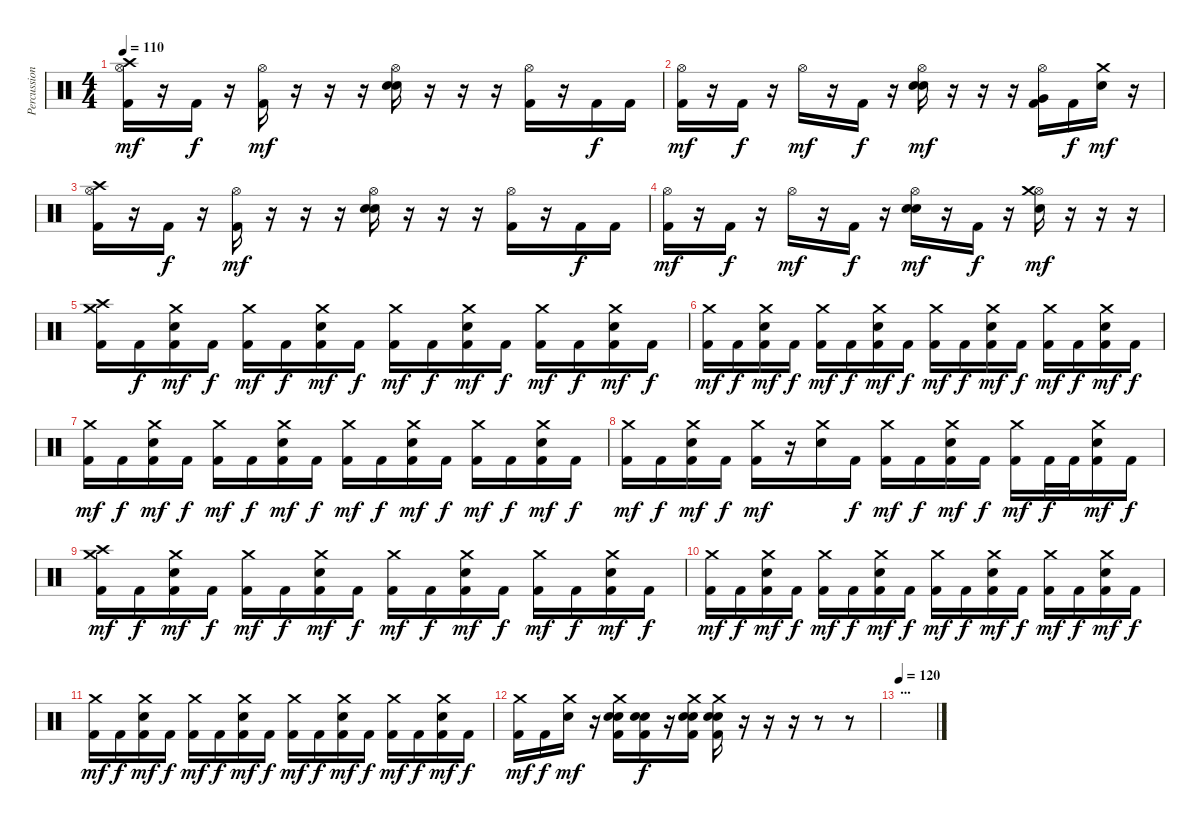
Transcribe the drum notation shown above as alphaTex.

\track ("Percussion" "Percussion") {instrument percussion}
\staff {score}
\articulation defaults
\ts (4 4)
\tempo 110
\clef neutral
\ks c
("Hi-Hat (open)" "Crash high (hit)" "Kick (hit) 2").16{dy mf} r.16 "Kick (hit) 2".16{dy f} r.16 ("Hi-Hat (open)" "Kick (hit) 2").16{dy mf} r.16 r.16 r.16 ("Hi-Hat (open)" "Snare (hit) 2" "Electric Snare (hit)").16 r.16 r.16 r.16 ("Hi-Hat (open)" "Kick (hit) 2").16 r.16 "Kick (hit) 2".16{dy f} "Kick (hit) 2".16 |
("Hi-Hat (open)" "Kick (hit) 2").16{dy mf} r.16 "Kick (hit) 2".16{dy f} r.16 "Hi-Hat (open)".16{dy mf} r.16 "Kick (hit) 2".16{dy f} r.16 ("Hi-Hat (open)" "Snare (hit) 2" "Electric Snare (hit)").16{dy mf} r.16 r.16 r.16 ("Hi-Hat (open)" "Very Low Tom (hit)" "Kick (hit) 2").16 "Kick (hit) 2".16{dy f} ("Crash medium (hit)" "Electric Snare (hit)").16{dy mf} r.16 |
("Hi-Hat (open)" "Crash high (hit)" "Kick (hit) 2").16 r.16 "Kick (hit) 2".16{dy f} r.16 ("Hi-Hat (open)" "Kick (hit) 2").16{dy mf} r.16 r.16 r.16 ("Hi-Hat (open)" "Snare (hit) 2" "Electric Snare (hit)").16 r.16 r.16 r.16 ("Hi-Hat (open)" "Kick (hit) 2").16 r.16 "Kick (hit) 2".16{dy f} "Kick (hit) 2".16 |
("Hi-Hat (open)" "Kick (hit) 2").16{dy mf} r.16 "Kick (hit) 2".16{dy f} r.16 "Hi-Hat (open)".16{dy mf} r.16 "Kick (hit) 2".16{dy f} r.16 ("Hi-Hat (open)" "Snare (hit) 2" "Electric Snare (hit)").16{dy mf} r.16 "Kick (hit) 2".16{dy f} r.16 ("Hi-Hat (open)" "Crash medium (hit)" "Electric Snare (hit)").16{dy mf} r.16 r.16 r.16 |
("Crash medium (hit)" "Crash high (hit)" "Kick (hit) 2").16 "Kick (hit) 2".16{dy f} ("Crash medium (hit)" "Electric Snare (hit)" "Kick (hit) 2").16{dy mf} "Kick (hit) 2".16{dy f} ("Crash medium (hit)" "Kick (hit) 2").16{dy mf} "Kick (hit) 2".16{dy f} ("Crash medium (hit)" "Electric Snare (hit)" "Kick (hit) 2").16{dy mf} "Kick (hit) 2".16{dy f} ("Crash medium (hit)" "Kick (hit) 2").16{dy mf} "Kick (hit) 2".16{dy f} ("Crash medium (hit)" "Electric Snare (hit)" "Kick (hit) 2").16{dy mf} "Kick (hit) 2".16{dy f} ("Crash medium (hit)" "Kick (hit) 2").16{dy mf} "Kick (hit) 2".16{dy f} ("Crash medium (hit)" "Electric Snare (hit)" "Kick (hit) 2").16{dy mf} "Kick (hit) 2".16{dy f} |
("Crash medium (hit)" "Kick (hit) 2").16{dy mf} "Kick (hit) 2".16{dy f} ("Crash medium (hit)" "Electric Snare (hit)" "Kick (hit) 2").16{dy mf} "Kick (hit) 2".16{dy f} ("Crash medium (hit)" "Kick (hit) 2").16{dy mf} "Kick (hit) 2".16{dy f} ("Crash medium (hit)" "Electric Snare (hit)" "Kick (hit) 2").16{dy mf} "Kick (hit) 2".16{dy f} ("Crash medium (hit)" "Kick (hit) 2").16{dy mf} "Kick (hit) 2".16{dy f} ("Crash medium (hit)" "Electric Snare (hit)" "Kick (hit) 2").16{dy mf} "Kick (hit) 2".16{dy f} ("Crash medium (hit)" "Kick (hit) 2").16{dy mf} "Kick (hit) 2".16{dy f} ("Crash medium (hit)" "Electric Snare (hit)" "Kick (hit) 2").16{dy mf} "Kick (hit) 2".16{dy f} |
("Crash medium (hit)" "Kick (hit) 2").16{dy mf} "Kick (hit) 2".16{dy f} ("Crash medium (hit)" "Electric Snare (hit)" "Kick (hit) 2").16{dy mf} "Kick (hit) 2".16{dy f} ("Crash medium (hit)" "Kick (hit) 2").16{dy mf} "Kick (hit) 2".16{dy f} ("Crash medium (hit)" "Electric Snare (hit)" "Kick (hit) 2").16{dy mf} "Kick (hit) 2".16{dy f} ("Crash medium (hit)" "Kick (hit) 2").16{dy mf} "Kick (hit) 2".16{dy f} ("Crash medium (hit)" "Electric Snare (hit)" "Kick (hit) 2").16{dy mf} "Kick (hit) 2".16{dy f} ("Crash medium (hit)" "Kick (hit) 2").16{dy mf} "Kick (hit) 2".16{dy f} ("Crash medium (hit)" "Electric Snare (hit)" "Kick (hit) 2").16{dy mf} "Kick (hit) 2".16{dy f} |
("Crash medium (hit)" "Kick (hit) 2").16{dy mf} "Kick (hit) 2".16{dy f} ("Crash medium (hit)" "Electric Snare (hit)" "Kick (hit) 2").16{dy mf} "Kick (hit) 2".16{dy f} ("Crash medium (hit)" "Kick (hit) 2").16{dy mf} r.16 ("Crash medium (hit)" "Electric Snare (hit)").16 "Kick (hit) 2".16{dy f} ("Crash medium (hit)" "Kick (hit) 2").16{dy mf} "Kick (hit) 2".16{dy f} ("Crash medium (hit)" "Electric Snare (hit)" "Kick (hit) 2").16{dy mf} "Kick (hit) 2".16{dy f} ("Crash medium (hit)" "Kick (hit) 2").16{dy mf} "Kick (hit) 2".32{dy f} "Kick (hit) 2".32 ("Crash medium (hit)" "Electric Snare (hit)" "Kick (hit) 2").16{dy mf} "Kick (hit) 2".16{dy f} |
("Crash medium (hit)" "Crash high (hit)" "Kick (hit) 2").16{dy mf} "Kick (hit) 2".16{dy f} ("Crash medium (hit)" "Electric Snare (hit)" "Kick (hit) 2").16{dy mf} "Kick (hit) 2".16{dy f} ("Crash medium (hit)" "Kick (hit) 2").16{dy mf} "Kick (hit) 2".16{dy f} ("Crash medium (hit)" "Electric Snare (hit)" "Kick (hit) 2").16{dy mf} "Kick (hit) 2".16{dy f} ("Crash medium (hit)" "Kick (hit) 2").16{dy mf} "Kick (hit) 2".16{dy f} ("Crash medium (hit)" "Electric Snare (hit)" "Kick (hit) 2").16{dy mf} "Kick (hit) 2".16{dy f} ("Crash medium (hit)" "Kick (hit) 2").16{dy mf} "Kick (hit) 2".16{dy f} ("Crash medium (hit)" "Electric Snare (hit)" "Kick (hit) 2").16{dy mf} "Kick (hit) 2".16{dy f} |
("Crash medium (hit)" "Kick (hit) 2").16{dy mf} "Kick (hit) 2".16{dy f} ("Crash medium (hit)" "Electric Snare (hit)" "Kick (hit) 2").16{dy mf} "Kick (hit) 2".16{dy f} ("Crash medium (hit)" "Kick (hit) 2").16{dy mf} "Kick (hit) 2".16{dy f} ("Crash medium (hit)" "Electric Snare (hit)" "Kick (hit) 2").16{dy mf} "Kick (hit) 2".16{dy f} ("Crash medium (hit)" "Kick (hit) 2").16{dy mf} "Kick (hit) 2".16{dy f} ("Crash medium (hit)" "Electric Snare (hit)" "Kick (hit) 2").16{dy mf} "Kick (hit) 2".16{dy f} ("Crash medium (hit)" "Kick (hit) 2").16{dy mf} "Kick (hit) 2".16{dy f} ("Crash medium (hit)" "Electric Snare (hit)" "Kick (hit) 2").16{dy mf} "Kick (hit) 2".16{dy f} |
("Crash medium (hit)" "Kick (hit) 2").16{dy mf} "Kick (hit) 2".16{dy f} ("Crash medium (hit)" "Electric Snare (hit)" "Kick (hit) 2").16{dy mf} "Kick (hit) 2".16{dy f} ("Crash medium (hit)" "Kick (hit) 2").16{dy mf} "Kick (hit) 2".16{dy f} ("Crash medium (hit)" "Electric Snare (hit)" "Kick (hit) 2").16{dy mf} "Kick (hit) 2".16{dy f} ("Crash medium (hit)" "Kick (hit) 2").16{dy mf} "Kick (hit) 2".16{dy f} ("Crash medium (hit)" "Electric Snare (hit)" "Kick (hit) 2").16{dy mf} "Kick (hit) 2".16{dy f} ("Crash medium (hit)" "Kick (hit) 2").16{dy mf} "Kick (hit) 2".16{dy f} ("Crash medium (hit)" "Electric Snare (hit)" "Kick (hit) 2").16{dy mf} "Kick (hit) 2".16{dy f} |
("Crash medium (hit)" "Kick (hit) 2").16{dy mf} "Kick (hit) 2".16{dy f} ("Crash medium (hit)" "Electric Snare (hit)").16{dy mf} r.16 ("Crash medium (hit)" "Snare (hit) 2" "Electric Snare (hit)" "Kick (hit) 2").16 ("Snare (hit) 2" "Electric Snare (hit)" "Kick (hit) 2").16{dy f} r.16 ("Crash medium (hit)" "Snare (hit) 2" "Electric Snare (hit)" "Kick (hit) 2").16 ("Crash medium (hit)" "Snare (hit) 2" "Electric Snare (hit)" "Kick (hit) 2").16 r.16 r.16 r.16 r.8 r.8 |
\section ("" "...")
\tempo 120
